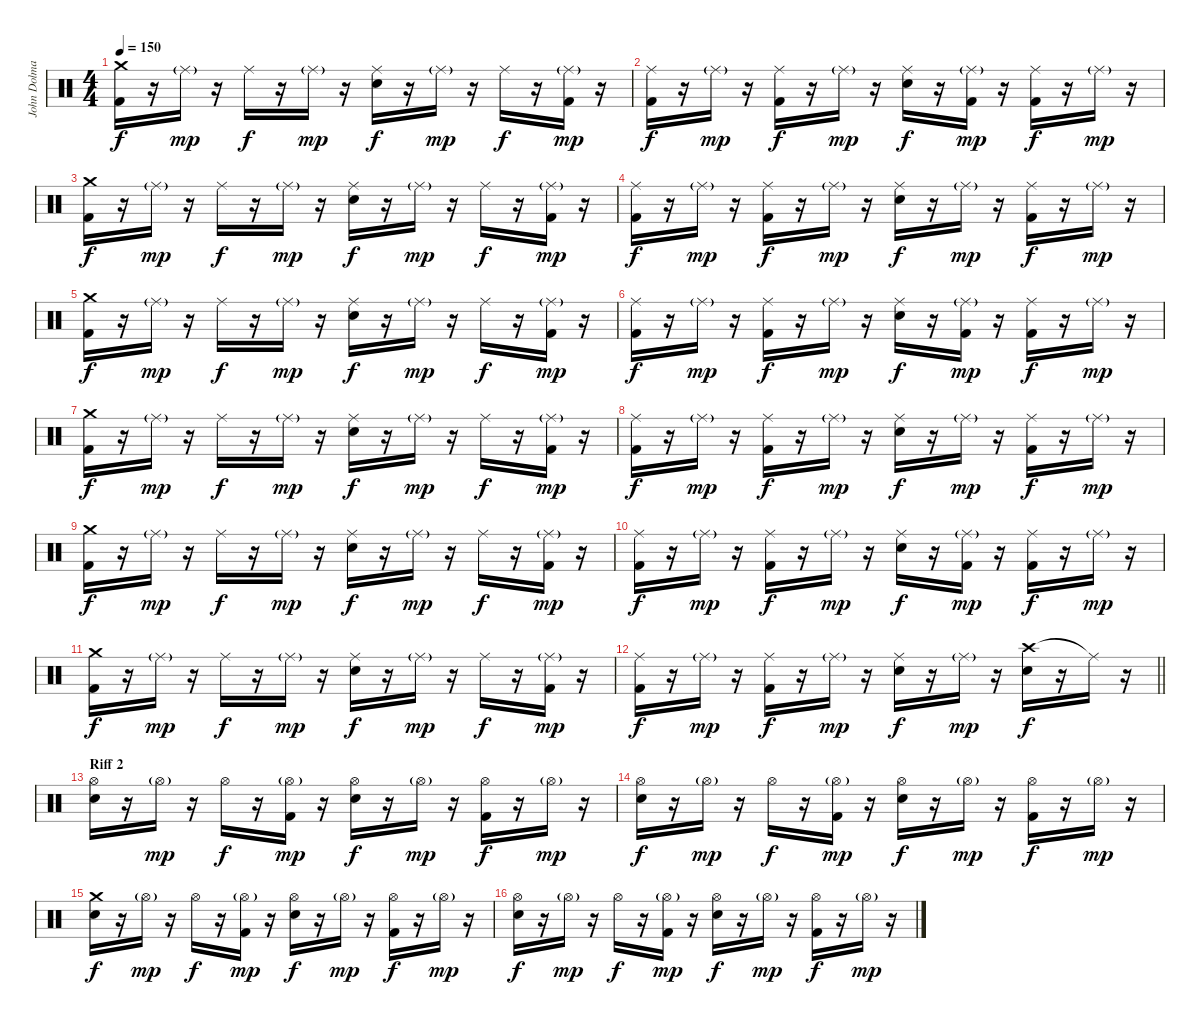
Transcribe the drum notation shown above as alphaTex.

\track ("John Dolmayan" "John Dolma") {instrument percussion}
\staff {score}
\articulation defaults
\ts (4 4)
\tempo 150
\clef neutral
\ks c
("Crash medium (hit)" "Kick (hit) 2").16{dy f} r.16 "Ride (middle)"{g}.16{dy mp} r.16 "Ride (middle)".16{dy f} r.16 "Ride (middle)"{g}.16{dy mp} r.16 ("Ride (middle)" "Electric Snare (hit)").16{dy f} r.16 "Ride (middle)"{g}.16{dy mp} r.16 "Ride (middle)".16{dy f} r.16 ("Ride (middle)"{g} "Kick (hit) 2").16{dy mp} r.16 |
("Ride (middle)" "Kick (hit) 2").16{dy f} r.16 "Ride (middle)"{g}.16{dy mp} r.16 ("Ride (middle)" "Kick (hit) 2").16{dy f} r.16 "Ride (middle)"{g}.16{dy mp} r.16 ("Ride (middle)" "Electric Snare (hit)").16{dy f} r.16 ("Ride (middle)"{g} "Kick (hit) 2").16{dy mp} r.16 ("Ride (middle)" "Kick (hit) 2").16{dy f} r.16 "Ride (middle)"{g}.16{dy mp} r.16 |
("Crash medium (hit)" "Kick (hit) 2").16{dy f} r.16 "Ride (middle)"{g}.16{dy mp} r.16 "Ride (middle)".16{dy f} r.16 "Ride (middle)"{g}.16{dy mp} r.16 ("Ride (middle)" "Electric Snare (hit)").16{dy f} r.16 "Ride (middle)"{g}.16{dy mp} r.16 "Ride (middle)".16{dy f} r.16 ("Ride (middle)"{g} "Kick (hit) 2").16{dy mp} r.16 |
("Ride (middle)" "Kick (hit) 2").16{dy f} r.16 "Ride (middle)"{g}.16{dy mp} r.16 ("Ride (middle)" "Kick (hit) 2").16{dy f} r.16 "Ride (middle)"{g}.16{dy mp} r.16 ("Ride (middle)" "Electric Snare (hit)").16{dy f} r.16 "Ride (middle)"{g}.16{dy mp} r.16 ("Ride (middle)" "Kick (hit) 2").16{dy f} r.16 "Ride (middle)"{g}.16{dy mp} r.16 |
("Crash medium (hit)" "Kick (hit) 2").16{dy f} r.16 "Ride (middle)"{g}.16{dy mp} r.16 "Ride (middle)".16{dy f} r.16 "Ride (middle)"{g}.16{dy mp} r.16 ("Ride (middle)" "Electric Snare (hit)").16{dy f} r.16 "Ride (middle)"{g}.16{dy mp} r.16 "Ride (middle)".16{dy f} r.16 ("Ride (middle)"{g} "Kick (hit) 2").16{dy mp} r.16 |
("Ride (middle)" "Kick (hit) 2").16{dy f} r.16 "Ride (middle)"{g}.16{dy mp} r.16 ("Ride (middle)" "Kick (hit) 2").16{dy f} r.16 "Ride (middle)"{g}.16{dy mp} r.16 ("Ride (middle)" "Electric Snare (hit)").16{dy f} r.16 ("Ride (middle)"{g} "Kick (hit) 2").16{dy mp} r.16 ("Ride (middle)" "Kick (hit) 2").16{dy f} r.16 "Ride (middle)"{g}.16{dy mp} r.16 |
("Crash medium (hit)" "Kick (hit) 2").16{dy f} r.16 "Ride (middle)"{g}.16{dy mp} r.16 "Ride (middle)".16{dy f} r.16 "Ride (middle)"{g}.16{dy mp} r.16 ("Ride (middle)" "Electric Snare (hit)").16{dy f} r.16 "Ride (middle)"{g}.16{dy mp} r.16 "Ride (middle)".16{dy f} r.16 ("Ride (middle)"{g} "Kick (hit) 2").16{dy mp} r.16 |
("Ride (middle)" "Kick (hit) 2").16{dy f} r.16 "Ride (middle)"{g}.16{dy mp} r.16 ("Ride (middle)" "Kick (hit) 2").16{dy f} r.16 "Ride (middle)"{g}.16{dy mp} r.16 ("Ride (middle)" "Electric Snare (hit)").16{dy f} r.16 "Ride (middle)"{g}.16{dy mp} r.16 ("Ride (middle)" "Kick (hit) 2").16{dy f} r.16 "Ride (middle)"{g}.16{dy mp} r.16 |
("Crash medium (hit)" "Kick (hit) 2").16{dy f} r.16 "Ride (middle)"{g}.16{dy mp} r.16 "Ride (middle)".16{dy f} r.16 "Ride (middle)"{g}.16{dy mp} r.16 ("Ride (middle)" "Electric Snare (hit)").16{dy f} r.16 "Ride (middle)"{g}.16{dy mp} r.16 "Ride (middle)".16{dy f} r.16 ("Ride (middle)"{g} "Kick (hit) 2").16{dy mp} r.16 |
("Ride (middle)" "Kick (hit) 2").16{dy f} r.16 "Ride (middle)"{g}.16{dy mp} r.16 ("Ride (middle)" "Kick (hit) 2").16{dy f} r.16 "Ride (middle)"{g}.16{dy mp} r.16 ("Ride (middle)" "Electric Snare (hit)").16{dy f} r.16 ("Ride (middle)"{g} "Kick (hit) 2").16{dy mp} r.16 ("Ride (middle)" "Kick (hit) 2").16{dy f} r.16 "Ride (middle)"{g}.16{dy mp} r.16 |
("Crash medium (hit)" "Kick (hit) 2").16{dy f} r.16 "Ride (middle)"{g}.16{dy mp} r.16 "Ride (middle)".16{dy f} r.16 "Ride (middle)"{g}.16{dy mp} r.16 ("Ride (middle)" "Electric Snare (hit)").16{dy f} r.16 "Ride (middle)"{g}.16{dy mp} r.16 "Ride (middle)".16{dy f} r.16 ("Ride (middle)"{g} "Kick (hit) 2").16{dy mp} r.16 |
\barLineRight lightlight
("Ride (middle)" "Kick (hit) 2").16{dy f} r.16 "Ride (middle)"{g}.16{dy mp} r.16 ("Ride (middle)" "Kick (hit) 2").16{dy f} r.16 "Ride (middle)"{g}.16{dy mp} r.16 ("Ride (middle)" "Electric Snare (hit)").16{dy f} r.16 "Ride (middle)"{g}.16{dy mp} r.16 ("Crash high (hit)" "Electric Snare (hit)").16{dy f} r.16 "Ride (middle)"{t}.16 r.16 |
\section ("" "Riff 2")
("Hi-Hat (open)" "Electric Snare (hit)").16 r.16 "Hi-Hat (open)"{g}.16{dy mp} r.16 "Hi-Hat (open)".16{dy f} r.16 ("Hi-Hat (open)"{g} "Kick (hit) 2").16{dy mp} r.16 ("Hi-Hat (open)" "Electric Snare (hit)").16{dy f} r.16 "Hi-Hat (open)"{g}.16{dy mp} r.16 ("Hi-Hat (open)" "Kick (hit) 2").16{dy f} r.16 "Hi-Hat (open)"{g}.16{dy mp} r.16 |
("Hi-Hat (open)" "Electric Snare (hit)").16{dy f} r.16 "Hi-Hat (open)"{g}.16{dy mp} r.16 "Hi-Hat (open)".16{dy f} r.16 ("Hi-Hat (open)"{g} "Kick (hit) 2").16{dy mp} r.16 ("Hi-Hat (open)" "Electric Snare (hit)").16{dy f} r.16 "Hi-Hat (open)"{g}.16{dy mp} r.16 ("Hi-Hat (open)" "Kick (hit) 2").16{dy f} r.16 "Hi-Hat (open)"{g}.16{dy mp} r.16 |
("Crash medium (hit)" "Electric Snare (hit)").16{dy f} r.16 "Hi-Hat (open)"{g}.16{dy mp} r.16 "Hi-Hat (open)".16{dy f} r.16 ("Hi-Hat (open)"{g} "Kick (hit) 2").16{dy mp} r.16 ("Hi-Hat (open)" "Electric Snare (hit)").16{dy f} r.16 "Hi-Hat (open)"{g}.16{dy mp} r.16 ("Hi-Hat (open)" "Kick (hit) 2").16{dy f} r.16 "Hi-Hat (open)"{g}.16{dy mp} r.16 |
("Hi-Hat (open)" "Electric Snare (hit)").16{dy f} r.16 "Hi-Hat (open)"{g}.16{dy mp} r.16 "Hi-Hat (open)".16{dy f} r.16 ("Hi-Hat (open)"{g} "Kick (hit) 2").16{dy mp} r.16 ("Hi-Hat (open)" "Electric Snare (hit)").16{dy f} r.16 "Hi-Hat (open)"{g}.16{dy mp} r.16 ("Hi-Hat (open)" "Kick (hit) 2").16{dy f} r.16 "Hi-Hat (open)"{g}.16{dy mp} r.16
